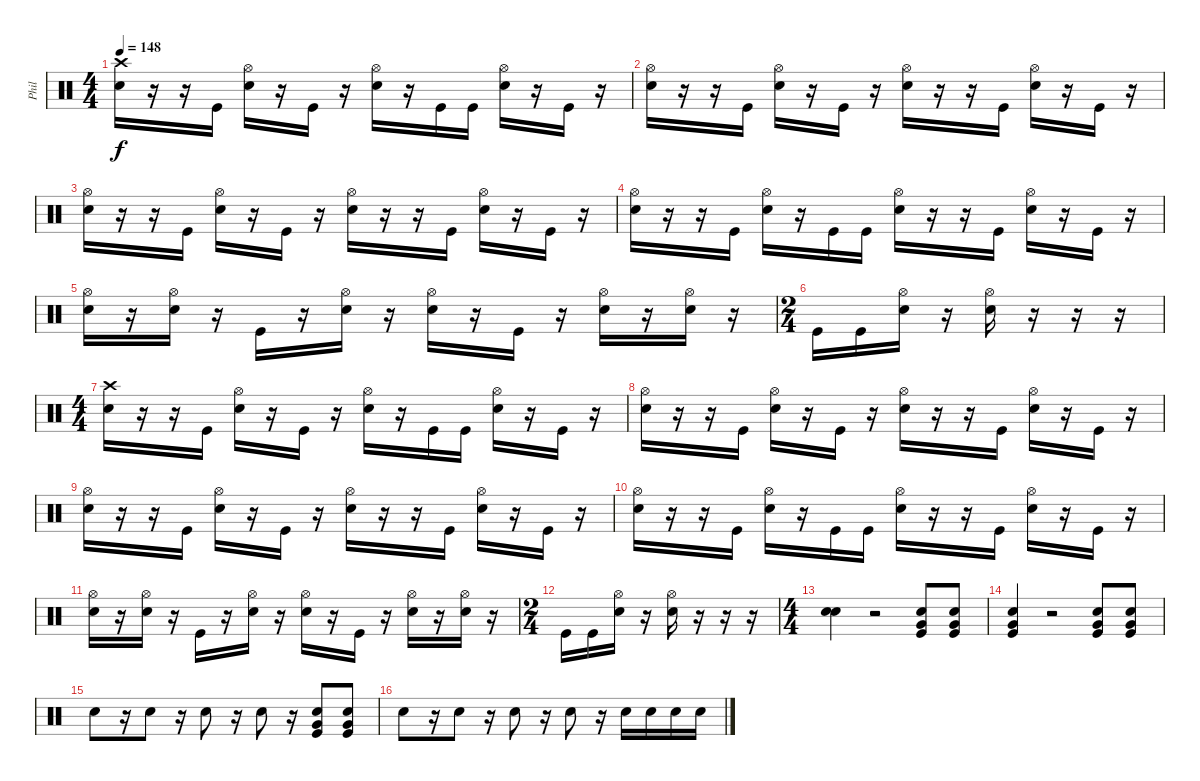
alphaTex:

\track ("Phil" "Phil") {instrument percussion}
\staff {score}
\articulation defaults
\ts (4 4)
\tempo 148
\clef neutral
\ks c
("Crash high (hit)" "Electric Snare (hit)").16{dy f} r.16 r.16 "Kick (hit)".16 ("Hi-Hat (open)" "Electric Snare (hit)").16 r.16 "Kick (hit)".16 r.16 ("Hi-Hat (open)" "Electric Snare (hit)").16 r.16 "Kick (hit)".16 "Kick (hit)".16 ("Hi-Hat (open)" "Electric Snare (hit)").16 r.16 "Kick (hit)".16 r.16 |
("Hi-Hat (open)" "Electric Snare (hit)").16 r.16 r.16 "Kick (hit)".16 ("Hi-Hat (open)" "Electric Snare (hit)").16 r.16 "Kick (hit)".16 r.16 ("Hi-Hat (open)" "Electric Snare (hit)").16 r.16 r.16 "Kick (hit)".16 ("Hi-Hat (open)" "Electric Snare (hit)").16 r.16 "Kick (hit)".16 r.16 |
("Hi-Hat (open)" "Electric Snare (hit)").16 r.16 r.16 "Kick (hit)".16 ("Hi-Hat (open)" "Electric Snare (hit)").16 r.16 "Kick (hit)".16 r.16 ("Hi-Hat (open)" "Electric Snare (hit)").16 r.16 r.16 "Kick (hit)".16 ("Hi-Hat (open)" "Electric Snare (hit)").16 r.16 "Kick (hit)".16 r.16 |
("Hi-Hat (open)" "Electric Snare (hit)").16 r.16 r.16 "Kick (hit)".16 ("Hi-Hat (open)" "Electric Snare (hit)").16 r.16 "Kick (hit)".16 "Kick (hit)".16 ("Hi-Hat (open)" "Electric Snare (hit)").16 r.16 r.16 "Kick (hit)".16 ("Hi-Hat (open)" "Electric Snare (hit)").16 r.16 "Kick (hit)".16 r.16 |
("Hi-Hat (open)" "Electric Snare (hit)").16 r.16 ("Hi-Hat (open)" "Electric Snare (hit)").16 r.16 "Kick (hit)".16 r.16 ("Hi-Hat (open)" "Electric Snare (hit)").16 r.16 ("Hi-Hat (open)" "Electric Snare (hit)").16 r.16 "Kick (hit)".16 r.16 ("Hi-Hat (open)" "Electric Snare (hit)").16 r.16 ("Hi-Hat (open)" "Electric Snare (hit)").16 r.16 |
\ts (2 4)
"Kick (hit)".16 "Kick (hit)".16 ("Hi-Hat (open)" "Electric Snare (hit)").16 r.16 ("Hi-Hat (open)" "Electric Snare (hit)").16 r.16 r.16 r.16 |
\ts (4 4)
("Crash high (hit)" "Electric Snare (hit)").16 r.16 r.16 "Kick (hit)".16 ("Hi-Hat (open)" "Electric Snare (hit)").16 r.16 "Kick (hit)".16 r.16 ("Hi-Hat (open)" "Electric Snare (hit)").16 r.16 "Kick (hit)".16 "Kick (hit)".16 ("Hi-Hat (open)" "Electric Snare (hit)").16 r.16 "Kick (hit)".16 r.16 |
("Hi-Hat (open)" "Electric Snare (hit)").16 r.16 r.16 "Kick (hit)".16 ("Hi-Hat (open)" "Electric Snare (hit)").16 r.16 "Kick (hit)".16 r.16 ("Hi-Hat (open)" "Electric Snare (hit)").16 r.16 r.16 "Kick (hit)".16 ("Hi-Hat (open)" "Electric Snare (hit)").16 r.16 "Kick (hit)".16 r.16 |
("Hi-Hat (open)" "Electric Snare (hit)").16 r.16 r.16 "Kick (hit)".16 ("Hi-Hat (open)" "Electric Snare (hit)").16 r.16 "Kick (hit)".16 r.16 ("Hi-Hat (open)" "Electric Snare (hit)").16 r.16 r.16 "Kick (hit)".16 ("Hi-Hat (open)" "Electric Snare (hit)").16 r.16 "Kick (hit)".16 r.16 |
("Hi-Hat (open)" "Electric Snare (hit)").16 r.16 r.16 "Kick (hit)".16 ("Hi-Hat (open)" "Electric Snare (hit)").16 r.16 "Kick (hit)".16 "Kick (hit)".16 ("Hi-Hat (open)" "Electric Snare (hit)").16 r.16 r.16 "Kick (hit)".16 ("Hi-Hat (open)" "Electric Snare (hit)").16 r.16 "Kick (hit)".16 r.16 |
("Hi-Hat (open)" "Electric Snare (hit)").16 r.16 ("Hi-Hat (open)" "Electric Snare (hit)").16 r.16 "Kick (hit)".16 r.16 ("Hi-Hat (open)" "Electric Snare (hit)").16 r.16 ("Hi-Hat (open)" "Electric Snare (hit)").16 r.16 "Kick (hit)".16 r.16 ("Hi-Hat (open)" "Electric Snare (hit)").16 r.16 ("Hi-Hat (open)" "Electric Snare (hit)").16 r.16 |
\ts (2 4)
"Kick (hit)".16 "Kick (hit)".16 ("Hi-Hat (open)" "Electric Snare (hit)").16 r.16 ("Hi-Hat (open)" "Electric Snare (hit)").16 r.16 r.16 r.16 |
\ts (4 4)
("Electric Snare (hit)" "Electric Snare (hit)").4 r.2 ("Very Low Tom (hit)" "Electric Snare (hit)" "Kick (hit)").8 ("Very Low Tom (hit)" "Electric Snare (hit)" "Kick (hit)").8 |
("Very Low Tom (hit)" "Electric Snare (hit)" "Kick (hit)").4 r.2 ("Very Low Tom (hit)" "Electric Snare (hit)" "Kick (hit)").8 ("Very Low Tom (hit)" "Electric Snare (hit)" "Kick (hit)").8 |
"Electric Snare (hit)".8 r.16 "Electric Snare (hit)".8 r.16 "Electric Snare (hit)".8 r.16 "Electric Snare (hit)".8 r.16 ("Very Low Tom (hit)" "Electric Snare (hit)" "Kick (hit)").8 ("Very Low Tom (hit)" "Electric Snare (hit)" "Kick (hit)").8 |
"Electric Snare (hit)".8 r.16 "Electric Snare (hit)".8 r.16 "Electric Snare (hit)".8 r.16 "Electric Snare (hit)".8 r.16 "Electric Snare (hit)".16 "Electric Snare (hit)".16 "Electric Snare (hit)".16 "Electric Snare (hit)".16
